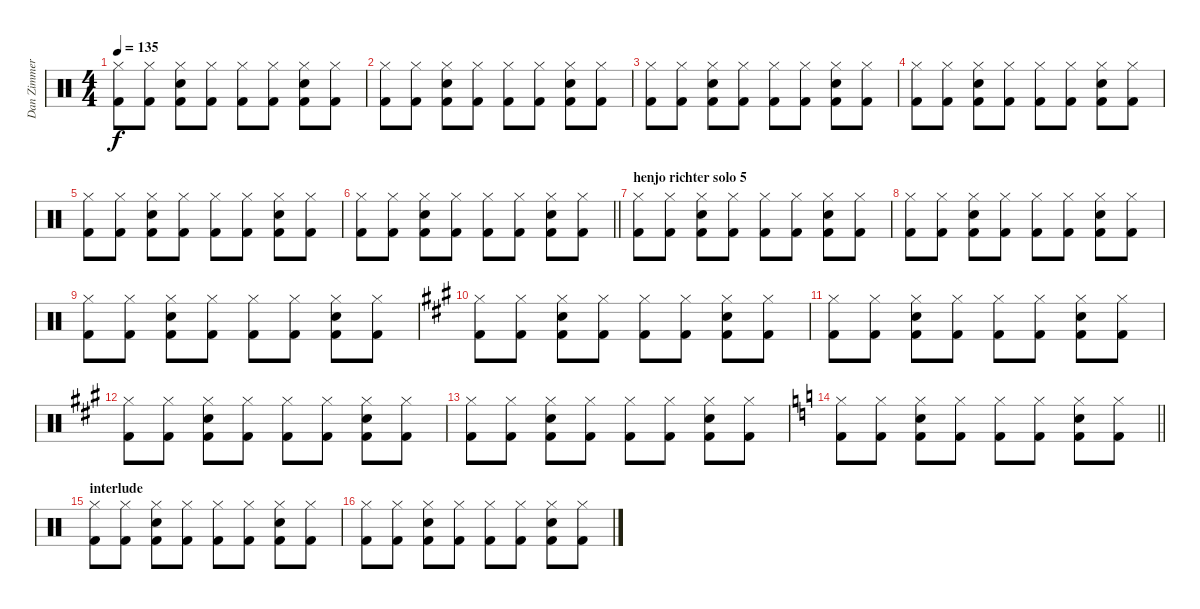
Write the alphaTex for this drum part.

\track ("Dan Zimmerman" "Dan Zimmer") {instrument percussion}
\staff {score}
\articulation defaults
\ts (4 4)
\tempo 135
\clef neutral
\ks c
("Hi-Hat (closed)" "Kick (hit) 2").8{dy f} ("Hi-Hat (closed)" "Kick (hit) 2").8 ("Snare (hit) 2" "Hi-Hat (closed)" "Kick (hit) 2").8 ("Hi-Hat (closed)" "Kick (hit) 2").8 ("Hi-Hat (closed)" "Kick (hit) 2").8 ("Hi-Hat (closed)" "Kick (hit) 2").8 ("Snare (hit) 2" "Hi-Hat (closed)" "Kick (hit) 2").8 ("Hi-Hat (closed)" "Kick (hit) 2").8 |
("Hi-Hat (closed)" "Kick (hit) 2").8 ("Hi-Hat (closed)" "Kick (hit) 2").8 ("Snare (hit) 2" "Hi-Hat (closed)" "Kick (hit) 2").8 ("Hi-Hat (closed)" "Kick (hit) 2").8 ("Hi-Hat (closed)" "Kick (hit) 2").8 ("Hi-Hat (closed)" "Kick (hit) 2").8 ("Snare (hit) 2" "Hi-Hat (closed)" "Kick (hit) 2").8 ("Hi-Hat (closed)" "Kick (hit) 2").8 |
("Hi-Hat (closed)" "Kick (hit) 2").8 ("Hi-Hat (closed)" "Kick (hit) 2").8 ("Snare (hit) 2" "Hi-Hat (closed)" "Kick (hit) 2").8 ("Hi-Hat (closed)" "Kick (hit) 2").8 ("Hi-Hat (closed)" "Kick (hit) 2").8 ("Hi-Hat (closed)" "Kick (hit) 2").8 ("Snare (hit) 2" "Hi-Hat (closed)" "Kick (hit) 2").8 ("Hi-Hat (closed)" "Kick (hit) 2").8 |
("Hi-Hat (closed)" "Kick (hit) 2").8 ("Hi-Hat (closed)" "Kick (hit) 2").8 ("Snare (hit) 2" "Hi-Hat (closed)" "Kick (hit) 2").8 ("Hi-Hat (closed)" "Kick (hit) 2").8 ("Hi-Hat (closed)" "Kick (hit) 2").8 ("Hi-Hat (closed)" "Kick (hit) 2").8 ("Snare (hit) 2" "Hi-Hat (closed)" "Kick (hit) 2").8 ("Hi-Hat (closed)" "Kick (hit) 2").8 |
("Hi-Hat (closed)" "Kick (hit) 2").8 ("Hi-Hat (closed)" "Kick (hit) 2").8 ("Snare (hit) 2" "Hi-Hat (closed)" "Kick (hit) 2").8 ("Hi-Hat (closed)" "Kick (hit) 2").8 ("Hi-Hat (closed)" "Kick (hit) 2").8 ("Hi-Hat (closed)" "Kick (hit) 2").8 ("Snare (hit) 2" "Hi-Hat (closed)" "Kick (hit) 2").8 ("Hi-Hat (closed)" "Kick (hit) 2").8 |
\barLineRight lightlight
("Hi-Hat (closed)" "Kick (hit) 2").8 ("Hi-Hat (closed)" "Kick (hit) 2").8 ("Snare (hit) 2" "Hi-Hat (closed)" "Kick (hit) 2").8 ("Hi-Hat (closed)" "Kick (hit) 2").8 ("Hi-Hat (closed)" "Kick (hit) 2").8 ("Hi-Hat (closed)" "Kick (hit) 2").8 ("Snare (hit) 2" "Hi-Hat (closed)" "Kick (hit) 2").8 ("Hi-Hat (closed)" "Kick (hit) 2").8 |
\section ("" "henjo richter solo 5")
("Hi-Hat (closed)" "Kick (hit) 2").8 ("Hi-Hat (closed)" "Kick (hit) 2").8 ("Snare (hit) 2" "Hi-Hat (closed)" "Kick (hit) 2").8 ("Hi-Hat (closed)" "Kick (hit) 2").8 ("Hi-Hat (closed)" "Kick (hit) 2").8 ("Hi-Hat (closed)" "Kick (hit) 2").8 ("Snare (hit) 2" "Hi-Hat (closed)" "Kick (hit) 2").8 ("Hi-Hat (closed)" "Kick (hit) 2").8 |
("Hi-Hat (closed)" "Kick (hit) 2").8 ("Hi-Hat (closed)" "Kick (hit) 2").8 ("Snare (hit) 2" "Hi-Hat (closed)" "Kick (hit) 2").8 ("Hi-Hat (closed)" "Kick (hit) 2").8 ("Hi-Hat (closed)" "Kick (hit) 2").8 ("Hi-Hat (closed)" "Kick (hit) 2").8 ("Snare (hit) 2" "Hi-Hat (closed)" "Kick (hit) 2").8 ("Hi-Hat (closed)" "Kick (hit) 2").8 |
("Hi-Hat (closed)" "Kick (hit) 2").8 ("Hi-Hat (closed)" "Kick (hit) 2").8 ("Snare (hit) 2" "Hi-Hat (closed)" "Kick (hit) 2").8 ("Hi-Hat (closed)" "Kick (hit) 2").8 ("Hi-Hat (closed)" "Kick (hit) 2").8 ("Hi-Hat (closed)" "Kick (hit) 2").8 ("Snare (hit) 2" "Hi-Hat (closed)" "Kick (hit) 2").8 ("Hi-Hat (closed)" "Kick (hit) 2").8 |
\ks a
("Hi-Hat (closed)" "Kick (hit) 2").8 ("Hi-Hat (closed)" "Kick (hit) 2").8 ("Snare (hit) 2" "Hi-Hat (closed)" "Kick (hit) 2").8 ("Hi-Hat (closed)" "Kick (hit) 2").8 ("Hi-Hat (closed)" "Kick (hit) 2").8 ("Hi-Hat (closed)" "Kick (hit) 2").8 ("Snare (hit) 2" "Hi-Hat (closed)" "Kick (hit) 2").8 ("Hi-Hat (closed)" "Kick (hit) 2").8 |
("Hi-Hat (closed)" "Kick (hit) 2").8 ("Hi-Hat (closed)" "Kick (hit) 2").8 ("Snare (hit) 2" "Hi-Hat (closed)" "Kick (hit) 2").8 ("Hi-Hat (closed)" "Kick (hit) 2").8 ("Hi-Hat (closed)" "Kick (hit) 2").8 ("Hi-Hat (closed)" "Kick (hit) 2").8 ("Snare (hit) 2" "Hi-Hat (closed)" "Kick (hit) 2").8 ("Hi-Hat (closed)" "Kick (hit) 2").8 |
("Hi-Hat (closed)" "Kick (hit) 2").8 ("Hi-Hat (closed)" "Kick (hit) 2").8 ("Snare (hit) 2" "Hi-Hat (closed)" "Kick (hit) 2").8 ("Hi-Hat (closed)" "Kick (hit) 2").8 ("Hi-Hat (closed)" "Kick (hit) 2").8 ("Hi-Hat (closed)" "Kick (hit) 2").8 ("Snare (hit) 2" "Hi-Hat (closed)" "Kick (hit) 2").8 ("Hi-Hat (closed)" "Kick (hit) 2").8 |
("Hi-Hat (closed)" "Kick (hit) 2").8 ("Hi-Hat (closed)" "Kick (hit) 2").8 ("Snare (hit) 2" "Hi-Hat (closed)" "Kick (hit) 2").8 ("Hi-Hat (closed)" "Kick (hit) 2").8 ("Hi-Hat (closed)" "Kick (hit) 2").8 ("Hi-Hat (closed)" "Kick (hit) 2").8 ("Snare (hit) 2" "Hi-Hat (closed)" "Kick (hit) 2").8 ("Hi-Hat (closed)" "Kick (hit) 2").8 |
\barLineRight lightlight
\ks c
("Hi-Hat (closed)" "Kick (hit) 2").8 ("Hi-Hat (closed)" "Kick (hit) 2").8 ("Snare (hit) 2" "Hi-Hat (closed)" "Kick (hit) 2").8 ("Hi-Hat (closed)" "Kick (hit) 2").8 ("Hi-Hat (closed)" "Kick (hit) 2").8 ("Hi-Hat (closed)" "Kick (hit) 2").8 ("Snare (hit) 2" "Hi-Hat (closed)" "Kick (hit) 2").8 ("Hi-Hat (closed)" "Kick (hit) 2").8 |
\section ("" "interlude")
("Hi-Hat (closed)" "Kick (hit) 2").8 ("Hi-Hat (closed)" "Kick (hit) 2").8 ("Snare (hit) 2" "Hi-Hat (closed)" "Kick (hit) 2").8 ("Hi-Hat (closed)" "Kick (hit) 2").8 ("Hi-Hat (closed)" "Kick (hit) 2").8 ("Hi-Hat (closed)" "Kick (hit) 2").8 ("Snare (hit) 2" "Hi-Hat (closed)" "Kick (hit) 2").8 ("Hi-Hat (closed)" "Kick (hit) 2").8 |
("Hi-Hat (closed)" "Kick (hit) 2").8 ("Hi-Hat (closed)" "Kick (hit) 2").8 ("Snare (hit) 2" "Hi-Hat (closed)" "Kick (hit) 2").8 ("Hi-Hat (closed)" "Kick (hit) 2").8 ("Hi-Hat (closed)" "Kick (hit) 2").8 ("Hi-Hat (closed)" "Kick (hit) 2").8 ("Snare (hit) 2" "Hi-Hat (closed)" "Kick (hit) 2").8 ("Hi-Hat (closed)" "Kick (hit) 2").8
